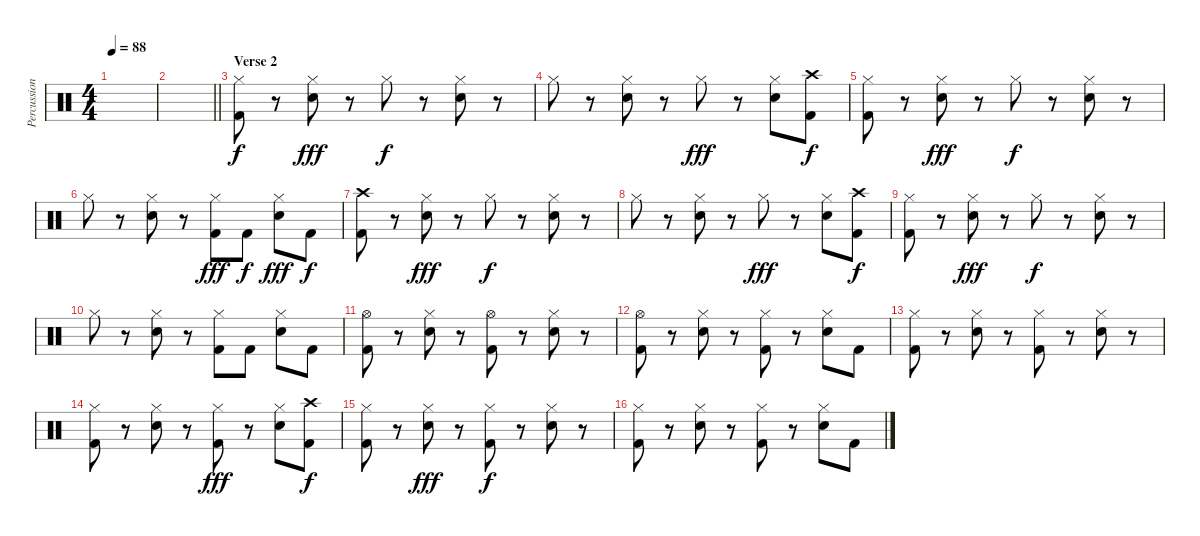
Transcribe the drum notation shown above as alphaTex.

\track ("Percussion" "Percussion") {instrument percussion}
\staff {score}
\articulation defaults
\ts (4 4)
\tempo 88
\clef neutral
\ks c
|
\barLineRight lightlight
|
\section ("" "Verse 2")
("Hi-Hat (closed)" "Kick (hit) 2").8{dy f} r.8 ("Hi-Hat (closed)" "Snare (hit) 2").8{dy fff} r.8 "Hi-Hat (closed)".8{dy f} r.8 ("Hi-Hat (closed)" "Snare (hit) 2").8 r.8 |
"Hi-Hat (closed)".8 r.8 ("Hi-Hat (closed)" "Snare (hit) 2").8 r.8 "Hi-Hat (closed)".8{dy fff} r.8 ("Hi-Hat (closed)" "Snare (hit) 2").8 ("Crash high (hit)" "Kick (hit) 2").8{dy f} |
("Hi-Hat (closed)" "Kick (hit) 2").8 r.8 ("Hi-Hat (closed)" "Snare (hit) 2").8{dy fff} r.8 "Hi-Hat (closed)".8{dy f} r.8 ("Hi-Hat (closed)" "Snare (hit) 2").8 r.8 |
"Hi-Hat (closed)".8 r.8 ("Hi-Hat (closed)" "Snare (hit) 2").8 r.8 ("Hi-Hat (closed)" "Kick (hit) 2").8{dy fff} "Kick (hit) 2".8{dy f} ("Hi-Hat (closed)" "Snare (hit) 2").8{dy fff} "Kick (hit) 2".8{dy f} |
("Crash high (hit)" "Kick (hit) 2").8 r.8 ("Hi-Hat (closed)" "Snare (hit) 2").8{dy fff} r.8 "Hi-Hat (closed)".8{dy f} r.8 ("Hi-Hat (closed)" "Snare (hit) 2").8 r.8 |
"Hi-Hat (closed)".8 r.8 ("Hi-Hat (closed)" "Snare (hit) 2").8 r.8 "Hi-Hat (closed)".8{dy fff} r.8 ("Hi-Hat (closed)" "Snare (hit) 2").8 ("Crash high (hit)" "Kick (hit) 2").8{dy f} |
("Hi-Hat (closed)" "Kick (hit) 2").8 r.8 ("Hi-Hat (closed)" "Snare (hit) 2").8{dy fff} r.8 "Hi-Hat (closed)".8{dy f} r.8 ("Hi-Hat (closed)" "Snare (hit) 2").8 r.8 |
"Hi-Hat (closed)".8 r.8 ("Hi-Hat (closed)" "Snare (hit) 2").8 r.8 ("Hi-Hat (closed)" "Kick (hit) 2").8 "Kick (hit) 2".8 ("Hi-Hat (closed)" "Snare (hit) 2").8 "Kick (hit) 2".8 |
("Hi-Hat (open)" "Kick (hit) 2").8 r.8 ("Hi-Hat (closed)" "Snare (hit) 2").8 r.8 ("Hi-Hat (open)" "Kick (hit) 2").8 r.8 ("Hi-Hat (closed)" "Snare (hit) 2").8 r.8 |
("Hi-Hat (open)" "Kick (hit) 2").8 r.8 ("Hi-Hat (closed)" "Snare (hit) 2").8 r.8 ("Hi-Hat (closed)" "Kick (hit) 2").8 r.8 ("Hi-Hat (closed)" "Snare (hit) 2").8 "Kick (hit) 2".8 |
("Hi-Hat (closed)" "Kick (hit) 2").8 r.8 ("Hi-Hat (closed)" "Snare (hit) 2").8 r.8 ("Hi-Hat (closed)" "Kick (hit) 2").8 r.8 ("Hi-Hat (closed)" "Snare (hit) 2").8 r.8 |
("Hi-Hat (closed)" "Kick (hit) 2").8 r.8 ("Hi-Hat (closed)" "Snare (hit) 2").8 r.8 ("Hi-Hat (closed)" "Kick (hit) 2").8{dy fff} r.8 ("Hi-Hat (closed)" "Snare (hit) 2").8 ("Crash high (hit)" "Kick (hit) 2").8{dy f} |
("Hi-Hat (closed)" "Kick (hit) 2").8 r.8 ("Hi-Hat (closed)" "Snare (hit) 2").8{dy fff} r.8 ("Hi-Hat (closed)" "Kick (hit) 2").8{dy f} r.8 ("Hi-Hat (closed)" "Snare (hit) 2").8 r.8 |
("Hi-Hat (closed)" "Kick (hit) 2").8 r.8 ("Hi-Hat (closed)" "Snare (hit) 2").8 r.8 ("Hi-Hat (closed)" "Kick (hit) 2").8 r.8 ("Hi-Hat (closed)" "Snare (hit) 2").8 "Kick (hit) 2".8
